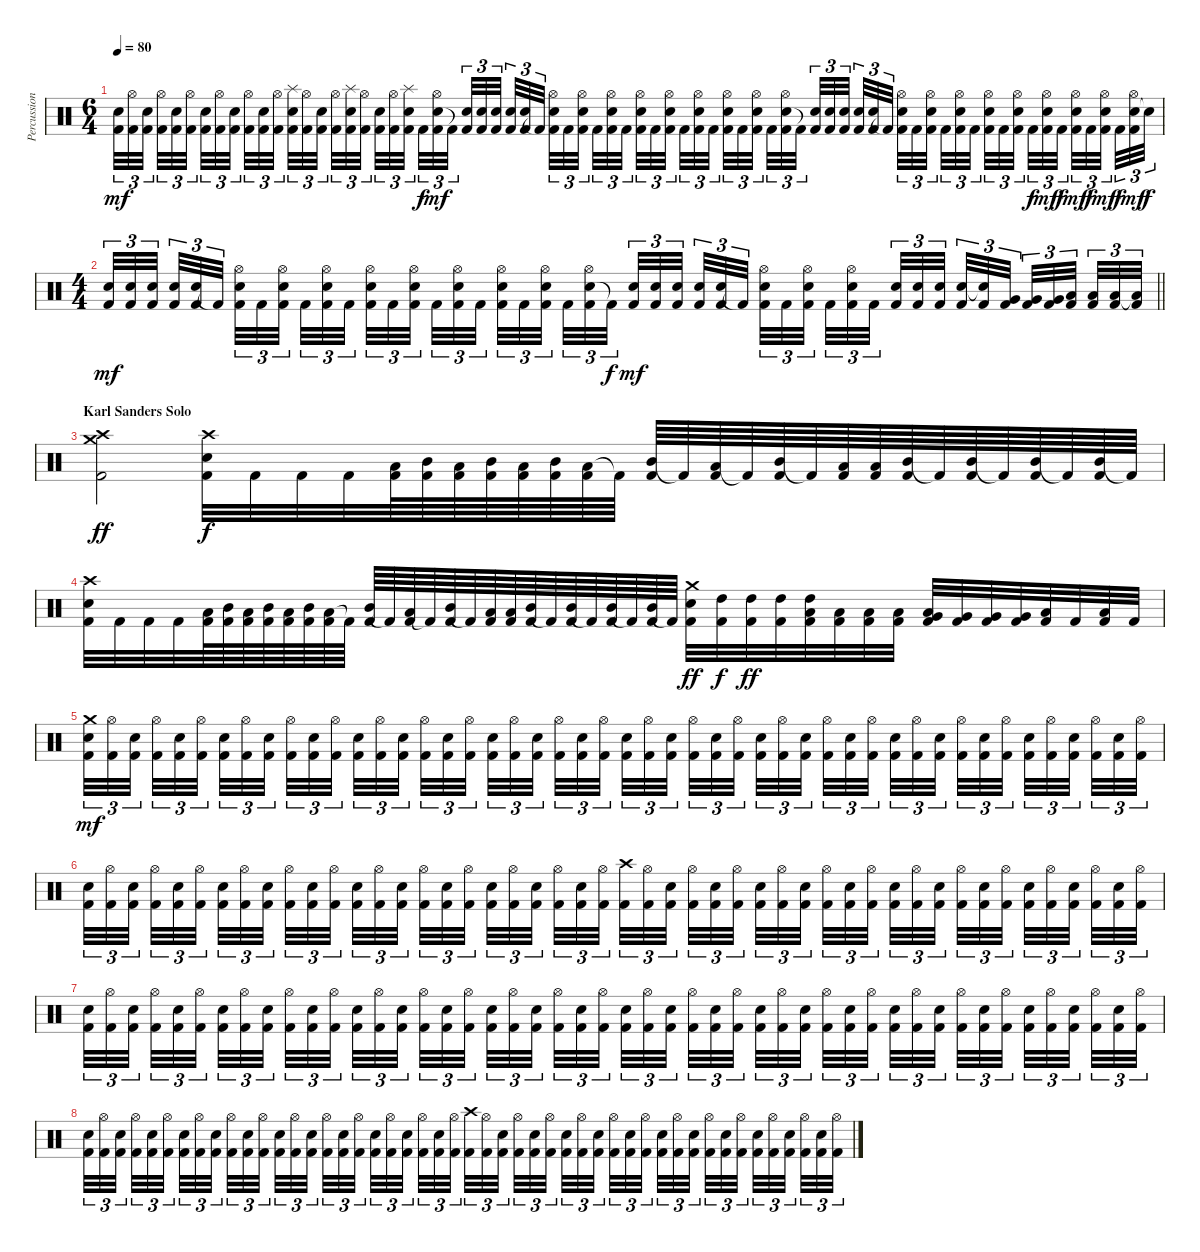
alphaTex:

\track ("Percussion" "Percussion") {instrument percussion}
\staff {score}
\articulation defaults
\ts (6 4)
\tempo 80
\clef neutral
\ks c
("Snare (hit) 2" "Kick (hit) 2").32{tu (3 2) dy mf} ("Hi-Hat (open)" "Kick (hit) 2").32{tu (3 2)} ("Snare (hit) 2" "Kick (hit) 2").32{tu (3 2) beam splitsecondary} ("Hi-Hat (open)" "Kick (hit) 2").32{tu (3 2)} ("Snare (hit) 2" "Kick (hit) 2").32{tu (3 2)} ("Hi-Hat (open)" "Kick (hit) 2").32{tu (3 2) beam splitsecondary} ("Snare (hit) 2" "Kick (hit) 2").32{tu (3 2)} ("Hi-Hat (open)" "Kick (hit) 2").32{tu (3 2)} ("Snare (hit) 2" "Kick (hit) 2").32{tu (3 2) beam splitsecondary} ("Hi-Hat (open)" "Kick (hit) 2").32{tu (3 2)} ("Snare (hit) 2" "Kick (hit) 2").32{tu (3 2)} ("Hi-Hat (open)" "Kick (hit) 2").32{tu (3 2) beam splitsecondary} ("Splash (hit)" "Snare (hit) 2" "Kick (hit) 2").32{tu (3 2)} ("Hi-Hat (open)" "Kick (hit) 2").32{tu (3 2)} ("Snare (hit) 2" "Kick (hit) 2").32{tu (3 2) beam splitsecondary} ("Hi-Hat (open)" "Kick (hit) 2").32{tu (3 2)} ("Splash (hit)" "Snare (hit) 2" "Kick (hit) 2").32{tu (3 2)} ("Hi-Hat (open)" "Kick (hit) 2").32{tu (3 2) beam splitsecondary} ("Snare (hit) 2" "Kick (hit) 2").32{tu (3 2)} ("Hi-Hat (open)" "Kick (hit) 2").32{tu (3 2)} ("Splash (hit)" "Snare (hit) 2" "Kick (hit) 2").32{tu (3 2) beam splitsecondary} "Kick (hit) 2".32{tu (3 2) dy f} ("Snare (hit) 2" "Hi-Hat (open)" "Kick (hit) 2").32{tu (3 2) dy mf} "Kick (hit) 2"{t}.32{tu (3 2) beam splitsecondary} ("Snare (hit) 2" "Kick (hit) 2").32{tu (3 2)} ("Snare (hit) 2" "Kick (hit) 2").32{tu (3 2)} ("Snare (hit) 2" "Kick (hit) 2").32{tu (3 2) beam splitsecondary} ("Snare (hit) 2" "Kick (hit) 2").32{tu (3 2)} ("Snare (hit) 2" "Kick (hit) 2").32{tu (3 2)} "Kick (hit) 2"{t}.32{tu (3 2) beam splitsecondary} ("Snare (hit) 2" "Hi-Hat (open)" "Kick (hit) 2").32{tu (3 2)} "Kick (hit) 2".32{tu (3 2)} ("Snare (hit) 2" "Hi-Hat (open)" "Kick (hit) 2").32{tu (3 2) beam splitsecondary} "Kick (hit) 2".32{tu (3 2)} ("Snare (hit) 2" "Hi-Hat (open)" "Kick (hit) 2").32{tu (3 2)} "Kick (hit) 2".32{tu (3 2)} ("Snare (hit) 2" "Hi-Hat (open)" "Kick (hit) 2").32{tu (3 2)} "Kick (hit) 2".32{tu (3 2)} ("Snare (hit) 2" "Hi-Hat (open)" "Kick (hit) 2").32{tu (3 2) beam splitsecondary} "Kick (hit) 2".32{tu (3 2)} ("Snare (hit) 2" "Hi-Hat (open)" "Kick (hit) 2").32{tu (3 2)} "Kick (hit) 2".32{tu (3 2) beam splitsecondary} ("Snare (hit) 2" "Hi-Hat (open)" "Kick (hit) 2").32{tu (3 2)} "Kick (hit) 2".32{tu (3 2)} ("Snare (hit) 2" "Hi-Hat (open)" "Kick (hit) 2").32{tu (3 2) beam splitsecondary} "Kick (hit) 2".32{tu (3 2)} ("Snare (hit) 2" "Hi-Hat (open)" "Kick (hit) 2").32{tu (3 2)} "Kick (hit) 2"{t}.32{tu (3 2) beam splitsecondary} ("Snare (hit) 2" "Kick (hit) 2").32{tu (3 2)} ("Snare (hit) 2" "Kick (hit) 2").32{tu (3 2)} ("Snare (hit) 2" "Kick (hit) 2").32{tu (3 2) beam splitsecondary} ("Snare (hit) 2" "Kick (hit) 2").32{tu (3 2)} ("Snare (hit) 2" "Kick (hit) 2").32{tu (3 2)} "Kick (hit) 2"{t}.32{tu (3 2) beam splitsecondary} ("Snare (hit) 2" "Hi-Hat (open)" "Kick (hit) 2").32{tu (3 2)} "Kick (hit) 2".32{tu (3 2)} ("Snare (hit) 2" "Hi-Hat (open)" "Kick (hit) 2").32{tu (3 2) beam splitsecondary} "Kick (hit) 2".32{tu (3 2)} ("Snare (hit) 2" "Hi-Hat (open)" "Kick (hit) 2").32{tu (3 2)} "Kick (hit) 2".32{tu (3 2) beam splitsecondary} ("Snare (hit) 2" "Hi-Hat (open)" "Kick (hit) 2").32{tu (3 2)} "Kick (hit) 2".32{tu (3 2)} ("Snare (hit) 2" "Hi-Hat (open)" "Kick (hit) 2").32{tu (3 2) beam splitsecondary} "Kick (hit) 2".32{tu (3 2) dy f} ("Snare (hit) 2" "Hi-Hat (open)" "Kick (hit) 2").32{tu (3 2) dy mf} "Kick (hit) 2".32{tu (3 2) dy f beam splitsecondary} ("Snare (hit) 2" "Hi-Hat (open)" "Kick (hit) 2").32{tu (3 2) dy mf} "Kick (hit) 2".32{tu (3 2) dy f} ("Snare (hit) 2" "Hi-Hat (open)" "Kick (hit) 2").32{tu (3 2) dy mf beam splitsecondary} "Kick (hit) 2".32{tu (3 2) dy f} ("Snare (hit) 2" "Hi-Hat (open)" "Kick (hit) 2").32{tu (3 2) dy mf} "Snare (hit)"{t}.32{tu (3 2) dy f} |
\ts (4 4)
\barLineRight lightlight
("Snare (hit) 2" "Kick (hit) 2").32{tu (3 2) dy mf} ("Snare (hit) 2" "Kick (hit) 2").32{tu (3 2)} ("Snare (hit) 2" "Kick (hit) 2").32{tu (3 2) beam splitsecondary} ("Snare (hit) 2" "Kick (hit) 2").32{tu (3 2)} ("Snare (hit) 2" "Kick (hit) 2").32{tu (3 2)} "Kick (hit) 2"{t}.32{tu (3 2) beam splitsecondary} ("Snare (hit) 2" "Hi-Hat (open)" "Kick (hit) 2").32{tu (3 2)} "Kick (hit) 2".32{tu (3 2)} ("Snare (hit) 2" "Hi-Hat (open)" "Kick (hit) 2").32{tu (3 2) beam splitsecondary} "Kick (hit) 2".32{tu (3 2)} ("Snare (hit) 2" "Hi-Hat (open)" "Kick (hit) 2").32{tu (3 2)} "Kick (hit) 2".32{tu (3 2)} ("Snare (hit) 2" "Hi-Hat (open)" "Kick (hit) 2").32{tu (3 2)} "Kick (hit) 2".32{tu (3 2)} ("Snare (hit) 2" "Hi-Hat (open)" "Kick (hit) 2").32{tu (3 2) beam splitsecondary} "Kick (hit) 2".32{tu (3 2)} ("Snare (hit) 2" "Hi-Hat (open)" "Kick (hit) 2").32{tu (3 2)} "Kick (hit) 2".32{tu (3 2) beam splitsecondary} ("Snare (hit) 2" "Hi-Hat (open)" "Kick (hit) 2").32{tu (3 2)} "Kick (hit) 2".32{tu (3 2)} ("Snare (hit) 2" "Hi-Hat (open)" "Kick (hit) 2").32{tu (3 2) beam splitsecondary} "Kick (hit) 2".32{tu (3 2)} ("Snare (hit) 2" "Hi-Hat (open)" "Kick (hit) 2").32{tu (3 2)} "Kick (hit) 2"{t}.32{tu (3 2) dy f} ("Snare (hit) 2" "Kick (hit) 2").32{tu (3 2) dy mf} ("Snare (hit) 2" "Kick (hit) 2").32{tu (3 2)} ("Snare (hit) 2" "Kick (hit) 2").32{tu (3 2) beam splitsecondary} ("Snare (hit) 2" "Kick (hit) 2").32{tu (3 2)} ("Snare (hit) 2" "Kick (hit) 2").32{tu (3 2)} "Kick (hit) 2"{t}.32{tu (3 2) beam splitsecondary} ("Snare (hit) 2" "Hi-Hat (open)" "Kick (hit) 2").32{tu (3 2)} "Kick (hit) 2".32{tu (3 2)} ("Snare (hit) 2" "Hi-Hat (open)" "Kick (hit) 2").32{tu (3 2) beam splitsecondary} "Kick (hit) 2".32{tu (3 2)} ("Snare (hit) 2" "Hi-Hat (open)" "Kick (hit) 2").32{tu (3 2)} "Kick (hit) 2".32{tu (3 2)} ("Snare (hit) 2" "Kick (hit) 2").32{tu (3 2)} ("Snare (hit) 2" "Kick (hit) 2").32{tu (3 2)} ("Snare (hit) 2" "Kick (hit) 2").32{tu (3 2) beam splitsecondary} ("Snare (hit) 2" "Kick (hit) 2").32{tu (3 2)} ("Snare (hit) 2"{t} "Kick (hit) 2").32{tu (3 2)} ("Very Low Tom (hit)" "Kick (hit) 2").32{tu (3 2) beam splitsecondary} ("Very Low Tom (hit)" "Kick (hit) 2").32{tu (3 2)} ("Very Low Tom (hit)" "Kick (hit) 2").32{tu (3 2)} ("Low Floor Tom (hit)" "Kick (hit) 2").32{tu (3 2) beam splitsecondary} ("Low Floor Tom (hit)" "Kick (hit) 2").32{tu (3 2)} ("Low Floor Tom (hit)" "Kick (hit) 2").32{tu (3 2)} ("Low Floor Tom (hit)"{t} "Kick (hit) 2").32{tu (3 2)} |
\section ("" "Karl Sanders Solo")
("Crash medium (hit)" "Crash high (hit)" "Kick (hit) 2").2{dy ff} ("Crash high (hit)" "Snare (hit) 2" "Kick (hit) 2").32{dy f} "Kick (hit) 2".32 "Kick (hit) 2".32 "Kick (hit) 2".32 ("Low Tom (hit)" "Kick (hit) 2").64 ("Mid Tom (hit)" "Kick (hit) 2").64 ("Low Tom (hit)" "Kick (hit) 2").64 ("Mid Tom (hit)" "Kick (hit) 2").64 ("Low Tom (hit)" "Kick (hit) 2").64 ("Mid Tom (hit)" "Kick (hit) 2").64 ("Low Tom (hit)" "Kick (hit) 2").64 "Kick (hit) 2"{t}.64 ("Mid Tom (hit)" "Kick (hit) 2").64 "Kick (hit) 2"{t}.64 ("Low Tom (hit)" "Kick (hit) 2").64 "Kick (hit) 2"{t}.64 ("Mid Tom (hit)" "Kick (hit) 2").64 "Kick (hit) 2"{t}.64 ("Low Tom (hit)" "Kick (hit) 2").64 ("Low Tom (hit)" "Kick (hit) 2").64 ("Mid Tom (hit)" "Kick (hit) 2").64 "Kick (hit) 2"{t}.64 ("Mid Tom (hit)" "Kick (hit) 2").64 "Kick (hit) 2"{t}.64 ("Mid Tom (hit)" "Kick (hit) 2").64 "Kick (hit) 2"{t}.64 ("Mid Tom (hit)" "Kick (hit) 2").64 "Kick (hit) 2"{t}.64 |
("Crash high (hit)" "Snare (hit) 2" "Kick (hit) 2").32 "Kick (hit) 2".32 "Kick (hit) 2".32 "Kick (hit) 2".32 ("Low Tom (hit)" "Kick (hit) 2").64 ("Mid Tom (hit)" "Kick (hit) 2").64 ("Low Tom (hit)" "Kick (hit) 2").64 ("Mid Tom (hit)" "Kick (hit) 2").64 ("Low Tom (hit)" "Kick (hit) 2").64 ("Mid Tom (hit)" "Kick (hit) 2").64 ("Low Tom (hit)" "Kick (hit) 2").64 "Kick (hit) 2"{t}.64 ("Mid Tom (hit)" "Kick (hit) 2").64 "Kick (hit) 2"{t}.64 ("Low Tom (hit)" "Kick (hit) 2").64 "Kick (hit) 2"{t}.64 ("Mid Tom (hit)" "Kick (hit) 2").64 "Kick (hit) 2"{t}.64 ("Low Tom (hit)" "Kick (hit) 2").64 ("Low Tom (hit)" "Kick (hit) 2").64 ("Mid Tom (hit)" "Kick (hit) 2").64 "Kick (hit) 2"{t}.64 ("Mid Tom (hit)" "Kick (hit) 2").64 "Kick (hit) 2"{t}.64 ("Mid Tom (hit)" "Kick (hit) 2").64 "Kick (hit) 2"{t}.64 ("Mid Tom (hit)" "Kick (hit) 2").64 "Kick (hit) 2"{t}.64 ("Crash medium (hit)" "Snare (hit) 2" "Kick (hit) 2").32{dy ff} ("High Tom (hit)" "Kick (hit) 2").32{dy f} ("High Tom (hit)" "Kick (hit) 2").32{dy ff} ("High Tom (hit)" "Kick (hit) 2").32 ("High Tom (hit)" "Low Tom (hit)" "Kick (hit) 2").32 ("Low Tom (hit)" "Kick (hit) 2").32 ("Low Tom (hit)" "Kick (hit) 2").32 ("Low Tom (hit)" "Kick (hit) 2").32 ("Low Tom (hit)" "Very Low Tom (hit)" "Kick (hit) 2").32 ("Very Low Tom (hit)" "Kick (hit) 2").32 ("Very Low Tom (hit)" "Kick (hit) 2").32 ("Very Low Tom (hit)" "Kick (hit) 2").32 ("Low Floor Tom (hit)" "Kick (hit) 2").32 "Kick (hit) 2".32 ("Low Floor Tom (hit)" "Kick (hit) 2").32 "Kick (hit) 2".32 |
("Crash medium (hit)" "Snare (hit) 2" "Kick (hit) 2").32{tu (3 2) dy mf} ("Hi-Hat (open)" "Kick (hit) 2").32{tu (3 2)} ("Snare (hit) 2" "Kick (hit) 2").32{tu (3 2) beam splitsecondary} ("Hi-Hat (open)" "Kick (hit) 2").32{tu (3 2)} ("Snare (hit) 2" "Kick (hit) 2").32{tu (3 2)} ("Hi-Hat (open)" "Kick (hit) 2").32{tu (3 2) beam splitsecondary} ("Snare (hit) 2" "Kick (hit) 2").32{tu (3 2)} ("Hi-Hat (open)" "Kick (hit) 2").32{tu (3 2)} ("Snare (hit) 2" "Kick (hit) 2").32{tu (3 2) beam splitsecondary} ("Hi-Hat (open)" "Kick (hit) 2").32{tu (3 2)} ("Snare (hit) 2" "Kick (hit) 2").32{tu (3 2)} ("Hi-Hat (open)" "Kick (hit) 2").32{tu (3 2)} ("Snare (hit) 2" "Kick (hit) 2").32{tu (3 2)} ("Hi-Hat (open)" "Kick (hit) 2").32{tu (3 2)} ("Snare (hit) 2" "Kick (hit) 2").32{tu (3 2) beam splitsecondary} ("Hi-Hat (open)" "Kick (hit) 2").32{tu (3 2)} ("Snare (hit) 2" "Kick (hit) 2").32{tu (3 2)} ("Hi-Hat (open)" "Kick (hit) 2").32{tu (3 2) beam splitsecondary} ("Snare (hit) 2" "Kick (hit) 2").32{tu (3 2)} ("Hi-Hat (open)" "Kick (hit) 2").32{tu (3 2)} ("Snare (hit) 2" "Kick (hit) 2").32{tu (3 2) beam splitsecondary} ("Hi-Hat (open)" "Kick (hit) 2").32{tu (3 2)} ("Snare (hit) 2" "Kick (hit) 2").32{tu (3 2)} ("Hi-Hat (open)" "Kick (hit) 2").32{tu (3 2)} ("Snare (hit) 2" "Kick (hit) 2").32{tu (3 2)} ("Hi-Hat (open)" "Kick (hit) 2").32{tu (3 2)} ("Snare (hit) 2" "Kick (hit) 2").32{tu (3 2) beam splitsecondary} ("Hi-Hat (open)" "Kick (hit) 2").32{tu (3 2)} ("Snare (hit) 2" "Kick (hit) 2").32{tu (3 2)} ("Hi-Hat (open)" "Kick (hit) 2").32{tu (3 2) beam splitsecondary} ("Snare (hit) 2" "Kick (hit) 2").32{tu (3 2)} ("Hi-Hat (open)" "Kick (hit) 2").32{tu (3 2)} ("Snare (hit) 2" "Kick (hit) 2").32{tu (3 2) beam splitsecondary} ("Hi-Hat (open)" "Kick (hit) 2").32{tu (3 2)} ("Snare (hit) 2" "Kick (hit) 2").32{tu (3 2)} ("Hi-Hat (open)" "Kick (hit) 2").32{tu (3 2)} ("Snare (hit) 2" "Kick (hit) 2").32{tu (3 2)} ("Hi-Hat (open)" "Kick (hit) 2").32{tu (3 2)} ("Snare (hit) 2" "Kick (hit) 2").32{tu (3 2) beam splitsecondary} ("Hi-Hat (open)" "Kick (hit) 2").32{tu (3 2)} ("Snare (hit) 2" "Kick (hit) 2").32{tu (3 2)} ("Hi-Hat (open)" "Kick (hit) 2").32{tu (3 2) beam splitsecondary} ("Snare (hit) 2" "Kick (hit) 2").32{tu (3 2)} ("Hi-Hat (open)" "Kick (hit) 2").32{tu (3 2)} ("Snare (hit) 2" "Kick (hit) 2").32{tu (3 2) beam splitsecondary} ("Hi-Hat (open)" "Kick (hit) 2").32{tu (3 2)} ("Snare (hit) 2" "Kick (hit) 2").32{tu (3 2)} ("Hi-Hat (open)" "Kick (hit) 2").32{tu (3 2)} |
("Snare (hit) 2" "Kick (hit) 2").32{tu (3 2)} ("Hi-Hat (open)" "Kick (hit) 2").32{tu (3 2)} ("Snare (hit) 2" "Kick (hit) 2").32{tu (3 2) beam splitsecondary} ("Hi-Hat (open)" "Kick (hit) 2").32{tu (3 2)} ("Snare (hit) 2" "Kick (hit) 2").32{tu (3 2)} ("Hi-Hat (open)" "Kick (hit) 2").32{tu (3 2) beam splitsecondary} ("Snare (hit) 2" "Kick (hit) 2").32{tu (3 2)} ("Hi-Hat (open)" "Kick (hit) 2").32{tu (3 2)} ("Snare (hit) 2" "Kick (hit) 2").32{tu (3 2) beam splitsecondary} ("Hi-Hat (open)" "Kick (hit) 2").32{tu (3 2)} ("Snare (hit) 2" "Kick (hit) 2").32{tu (3 2)} ("Hi-Hat (open)" "Kick (hit) 2").32{tu (3 2)} ("Snare (hit) 2" "Kick (hit) 2").32{tu (3 2)} ("Hi-Hat (open)" "Kick (hit) 2").32{tu (3 2)} ("Snare (hit) 2" "Kick (hit) 2").32{tu (3 2) beam splitsecondary} ("Hi-Hat (open)" "Kick (hit) 2").32{tu (3 2)} ("Snare (hit) 2" "Kick (hit) 2").32{tu (3 2)} ("Hi-Hat (open)" "Kick (hit) 2").32{tu (3 2) beam splitsecondary} ("Snare (hit) 2" "Kick (hit) 2").32{tu (3 2)} ("Hi-Hat (open)" "Kick (hit) 2").32{tu (3 2)} ("Snare (hit) 2" "Kick (hit) 2").32{tu (3 2) beam splitsecondary} ("Hi-Hat (open)" "Kick (hit) 2").32{tu (3 2)} ("Snare (hit) 2" "Kick (hit) 2").32{tu (3 2)} ("Hi-Hat (open)" "Kick (hit) 2").32{tu (3 2)} ("Crash high (hit)" "Kick (hit) 2").32{tu (3 2)} ("Hi-Hat (open)" "Kick (hit) 2").32{tu (3 2)} ("Snare (hit) 2" "Kick (hit) 2").32{tu (3 2) beam splitsecondary} ("Hi-Hat (open)" "Kick (hit) 2").32{tu (3 2)} ("Snare (hit) 2" "Kick (hit) 2").32{tu (3 2)} ("Hi-Hat (open)" "Kick (hit) 2").32{tu (3 2) beam splitsecondary} ("Snare (hit) 2" "Kick (hit) 2").32{tu (3 2)} ("Hi-Hat (open)" "Kick (hit) 2").32{tu (3 2)} ("Snare (hit) 2" "Kick (hit) 2").32{tu (3 2) beam splitsecondary} ("Hi-Hat (open)" "Kick (hit) 2").32{tu (3 2)} ("Snare (hit) 2" "Kick (hit) 2").32{tu (3 2)} ("Hi-Hat (open)" "Kick (hit) 2").32{tu (3 2)} ("Snare (hit) 2" "Kick (hit) 2").32{tu (3 2)} ("Hi-Hat (open)" "Kick (hit) 2").32{tu (3 2)} ("Snare (hit) 2" "Kick (hit) 2").32{tu (3 2) beam splitsecondary} ("Hi-Hat (open)" "Kick (hit) 2").32{tu (3 2)} ("Snare (hit) 2" "Kick (hit) 2").32{tu (3 2)} ("Hi-Hat (open)" "Kick (hit) 2").32{tu (3 2) beam splitsecondary} ("Snare (hit) 2" "Kick (hit) 2").32{tu (3 2)} ("Hi-Hat (open)" "Kick (hit) 2").32{tu (3 2)} ("Snare (hit) 2" "Kick (hit) 2").32{tu (3 2) beam splitsecondary} ("Hi-Hat (open)" "Kick (hit) 2").32{tu (3 2)} ("Snare (hit) 2" "Kick (hit) 2").32{tu (3 2)} ("Hi-Hat (open)" "Kick (hit) 2").32{tu (3 2)} |
("Snare (hit) 2" "Kick (hit) 2").32{tu (3 2)} ("Hi-Hat (open)" "Kick (hit) 2").32{tu (3 2)} ("Snare (hit) 2" "Kick (hit) 2").32{tu (3 2) beam splitsecondary} ("Hi-Hat (open)" "Kick (hit) 2").32{tu (3 2)} ("Snare (hit) 2" "Kick (hit) 2").32{tu (3 2)} ("Hi-Hat (open)" "Kick (hit) 2").32{tu (3 2) beam splitsecondary} ("Snare (hit) 2" "Kick (hit) 2").32{tu (3 2)} ("Hi-Hat (open)" "Kick (hit) 2").32{tu (3 2)} ("Snare (hit) 2" "Kick (hit) 2").32{tu (3 2) beam splitsecondary} ("Hi-Hat (open)" "Kick (hit) 2").32{tu (3 2)} ("Snare (hit) 2" "Kick (hit) 2").32{tu (3 2)} ("Hi-Hat (open)" "Kick (hit) 2").32{tu (3 2)} ("Snare (hit) 2" "Kick (hit) 2").32{tu (3 2)} ("Hi-Hat (open)" "Kick (hit) 2").32{tu (3 2)} ("Snare (hit) 2" "Kick (hit) 2").32{tu (3 2) beam splitsecondary} ("Hi-Hat (open)" "Kick (hit) 2").32{tu (3 2)} ("Snare (hit) 2" "Kick (hit) 2").32{tu (3 2)} ("Hi-Hat (open)" "Kick (hit) 2").32{tu (3 2) beam splitsecondary} ("Snare (hit) 2" "Kick (hit) 2").32{tu (3 2)} ("Hi-Hat (open)" "Kick (hit) 2").32{tu (3 2)} ("Snare (hit) 2" "Kick (hit) 2").32{tu (3 2) beam splitsecondary} ("Hi-Hat (open)" "Kick (hit) 2").32{tu (3 2)} ("Snare (hit) 2" "Kick (hit) 2").32{tu (3 2)} ("Hi-Hat (open)" "Kick (hit) 2").32{tu (3 2)} ("Snare (hit) 2" "Kick (hit) 2").32{tu (3 2)} ("Hi-Hat (open)" "Kick (hit) 2").32{tu (3 2)} ("Snare (hit) 2" "Kick (hit) 2").32{tu (3 2) beam splitsecondary} ("Hi-Hat (open)" "Kick (hit) 2").32{tu (3 2)} ("Snare (hit) 2" "Kick (hit) 2").32{tu (3 2)} ("Hi-Hat (open)" "Kick (hit) 2").32{tu (3 2) beam splitsecondary} ("Snare (hit) 2" "Kick (hit) 2").32{tu (3 2)} ("Hi-Hat (open)" "Kick (hit) 2").32{tu (3 2)} ("Snare (hit) 2" "Kick (hit) 2").32{tu (3 2) beam splitsecondary} ("Hi-Hat (open)" "Kick (hit) 2").32{tu (3 2)} ("Snare (hit) 2" "Kick (hit) 2").32{tu (3 2)} ("Hi-Hat (open)" "Kick (hit) 2").32{tu (3 2)} ("Snare (hit) 2" "Kick (hit) 2").32{tu (3 2)} ("Hi-Hat (open)" "Kick (hit) 2").32{tu (3 2)} ("Snare (hit) 2" "Kick (hit) 2").32{tu (3 2) beam splitsecondary} ("Hi-Hat (open)" "Kick (hit) 2").32{tu (3 2)} ("Snare (hit) 2" "Kick (hit) 2").32{tu (3 2)} ("Hi-Hat (open)" "Kick (hit) 2").32{tu (3 2) beam splitsecondary} ("Snare (hit) 2" "Kick (hit) 2").32{tu (3 2)} ("Hi-Hat (open)" "Kick (hit) 2").32{tu (3 2)} ("Snare (hit) 2" "Kick (hit) 2").32{tu (3 2) beam splitsecondary} ("Hi-Hat (open)" "Kick (hit) 2").32{tu (3 2)} ("Snare (hit) 2" "Kick (hit) 2").32{tu (3 2)} ("Hi-Hat (open)" "Kick (hit) 2").32{tu (3 2)} |
("Snare (hit) 2" "Kick (hit) 2").32{tu (3 2)} ("Hi-Hat (open)" "Kick (hit) 2").32{tu (3 2)} ("Snare (hit) 2" "Kick (hit) 2").32{tu (3 2) beam splitsecondary} ("Hi-Hat (open)" "Kick (hit) 2").32{tu (3 2)} ("Snare (hit) 2" "Kick (hit) 2").32{tu (3 2)} ("Hi-Hat (open)" "Kick (hit) 2").32{tu (3 2) beam splitsecondary} ("Snare (hit) 2" "Kick (hit) 2").32{tu (3 2)} ("Hi-Hat (open)" "Kick (hit) 2").32{tu (3 2)} ("Snare (hit) 2" "Kick (hit) 2").32{tu (3 2) beam splitsecondary} ("Hi-Hat (open)" "Kick (hit) 2").32{tu (3 2)} ("Snare (hit) 2" "Kick (hit) 2").32{tu (3 2)} ("Hi-Hat (open)" "Kick (hit) 2").32{tu (3 2)} ("Snare (hit) 2" "Kick (hit) 2").32{tu (3 2)} ("Hi-Hat (open)" "Kick (hit) 2").32{tu (3 2)} ("Snare (hit) 2" "Kick (hit) 2").32{tu (3 2) beam splitsecondary} ("Hi-Hat (open)" "Kick (hit) 2").32{tu (3 2)} ("Snare (hit) 2" "Kick (hit) 2").32{tu (3 2)} ("Hi-Hat (open)" "Kick (hit) 2").32{tu (3 2) beam splitsecondary} ("Snare (hit) 2" "Kick (hit) 2").32{tu (3 2)} ("Hi-Hat (open)" "Kick (hit) 2").32{tu (3 2)} ("Snare (hit) 2" "Kick (hit) 2").32{tu (3 2) beam splitsecondary} ("Hi-Hat (open)" "Kick (hit) 2").32{tu (3 2)} ("Snare (hit) 2" "Kick (hit) 2").32{tu (3 2)} ("Hi-Hat (open)" "Kick (hit) 2").32{tu (3 2)} ("Crash high (hit)" "Kick (hit) 2").32{tu (3 2)} ("Hi-Hat (open)" "Kick (hit) 2").32{tu (3 2)} ("Snare (hit) 2" "Kick (hit) 2").32{tu (3 2) beam splitsecondary} ("Hi-Hat (open)" "Kick (hit) 2").32{tu (3 2)} ("Snare (hit) 2" "Kick (hit) 2").32{tu (3 2)} ("Hi-Hat (open)" "Kick (hit) 2").32{tu (3 2) beam splitsecondary} ("Snare (hit) 2" "Kick (hit) 2").32{tu (3 2)} ("Hi-Hat (open)" "Kick (hit) 2").32{tu (3 2)} ("Snare (hit) 2" "Kick (hit) 2").32{tu (3 2) beam splitsecondary} ("Hi-Hat (open)" "Kick (hit) 2").32{tu (3 2)} ("Snare (hit) 2" "Kick (hit) 2").32{tu (3 2)} ("Hi-Hat (open)" "Kick (hit) 2").32{tu (3 2)} ("Snare (hit) 2" "Kick (hit) 2").32{tu (3 2)} ("Hi-Hat (open)" "Kick (hit) 2").32{tu (3 2)} ("Snare (hit) 2" "Kick (hit) 2").32{tu (3 2) beam splitsecondary} ("Hi-Hat (open)" "Kick (hit) 2").32{tu (3 2)} ("Snare (hit) 2" "Kick (hit) 2").32{tu (3 2)} ("Hi-Hat (open)" "Kick (hit) 2").32{tu (3 2) beam splitsecondary} ("Snare (hit) 2" "Kick (hit) 2").32{tu (3 2)} ("Hi-Hat (open)" "Kick (hit) 2").32{tu (3 2)} ("Snare (hit) 2" "Kick (hit) 2").32{tu (3 2) beam splitsecondary} ("Hi-Hat (open)" "Kick (hit) 2").32{tu (3 2)} ("Snare (hit) 2" "Kick (hit) 2").32{tu (3 2)} ("Hi-Hat (open)" "Kick (hit) 2").32{tu (3 2)}
